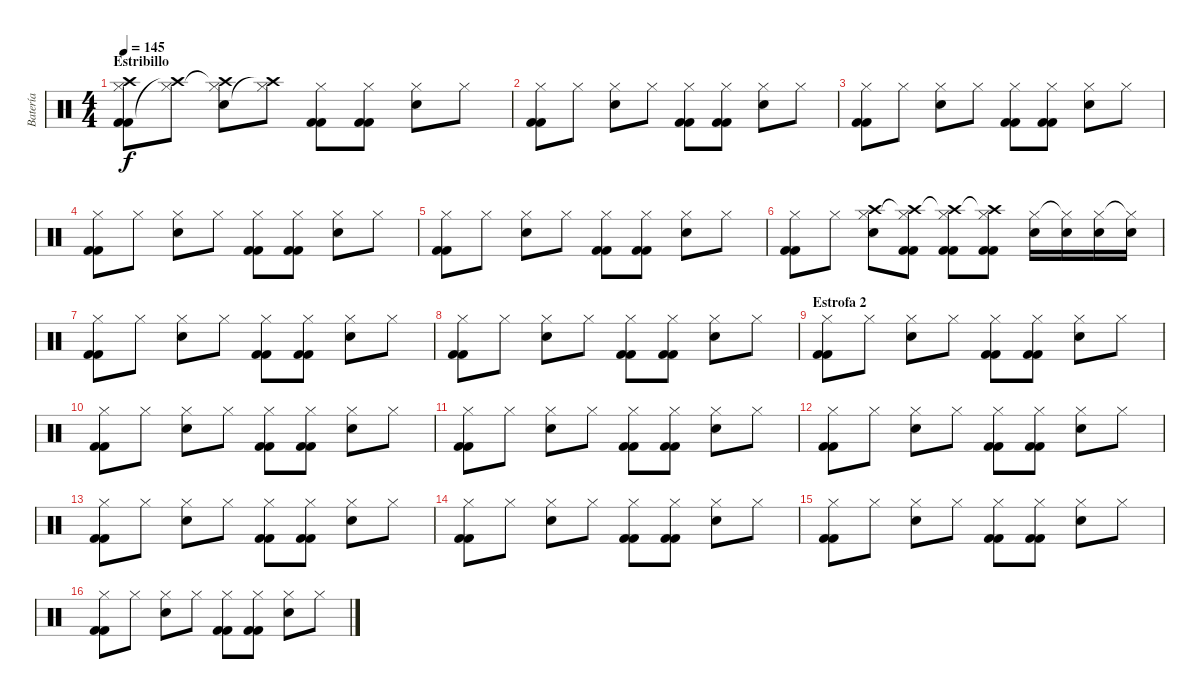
\track ("Batería" "Batería") {instrument percussion}
\staff {score}
\articulation defaults
\ts (4 4)
\section ("" "Estribillo")
\tempo 145
\clef neutral
\ks c
("Kick (hit) 2" "Kick (hit) 2" "Crash high (hit)" "Hi-Hat (closed)").8{dy f} ("Crash high (hit)"{t} "Hi-Hat (closed)").8 ("Snare (hit) 2" "Crash high (hit)"{t} "Hi-Hat (closed)").8 ("Crash high (hit)"{t} "Hi-Hat (closed)").8 ("Kick (hit) 2" "Kick (hit) 2" "Hi-Hat (closed)").8 ("Kick (hit) 2" "Kick (hit) 2" "Hi-Hat (closed)").8 ("Snare (hit) 2" "Hi-Hat (closed)").8 "Hi-Hat (closed)".8 |
("Kick (hit) 2" "Kick (hit) 2" "Hi-Hat (closed)").8 "Hi-Hat (closed)".8 ("Snare (hit) 2" "Hi-Hat (closed)").8 "Hi-Hat (closed)".8 ("Kick (hit) 2" "Kick (hit) 2" "Hi-Hat (closed)").8 ("Kick (hit) 2" "Kick (hit) 2" "Hi-Hat (closed)").8 ("Snare (hit) 2" "Hi-Hat (closed)").8 "Hi-Hat (closed)".8 |
("Kick (hit) 2" "Kick (hit) 2" "Hi-Hat (closed)").8 "Hi-Hat (closed)".8 ("Snare (hit) 2" "Hi-Hat (closed)").8 "Hi-Hat (closed)".8 ("Kick (hit) 2" "Kick (hit) 2" "Hi-Hat (closed)").8 ("Kick (hit) 2" "Kick (hit) 2" "Hi-Hat (closed)").8 ("Snare (hit) 2" "Hi-Hat (closed)").8 "Hi-Hat (closed)".8 |
("Kick (hit) 2" "Kick (hit) 2" "Hi-Hat (closed)").8 "Hi-Hat (closed)".8 ("Snare (hit) 2" "Hi-Hat (closed)").8 "Hi-Hat (closed)".8 ("Kick (hit) 2" "Kick (hit) 2" "Hi-Hat (closed)").8 ("Kick (hit) 2" "Kick (hit) 2" "Hi-Hat (closed)").8 ("Snare (hit) 2" "Hi-Hat (closed)").8 "Hi-Hat (closed)".8 |
("Kick (hit) 2" "Kick (hit) 2" "Hi-Hat (closed)").8 "Hi-Hat (closed)".8 ("Snare (hit) 2" "Hi-Hat (closed)").8 "Hi-Hat (closed)".8 ("Kick (hit) 2" "Kick (hit) 2" "Hi-Hat (closed)").8 ("Kick (hit) 2" "Kick (hit) 2" "Hi-Hat (closed)").8 ("Snare (hit) 2" "Hi-Hat (closed)").8 "Hi-Hat (closed)".8 |
("Kick (hit) 2" "Kick (hit) 2" "Hi-Hat (closed)").8 "Hi-Hat (closed)".8 ("Snare (hit) 2" "Crash high (hit)" "Hi-Hat (closed)").8 ("Kick (hit) 2" "Kick (hit) 2" "Crash high (hit)"{t} "Hi-Hat (closed)").8 ("Kick (hit) 2" "Kick (hit) 2" "Crash high (hit)"{t} "Hi-Hat (closed)").8 ("Kick (hit) 2" "Kick (hit) 2" "Crash high (hit)"{t} "Hi-Hat (closed)").8 ("Snare (hit) 2" "Hi-Hat (closed)").16 ("Snare (hit) 2" "Hi-Hat (closed)"{t}).16 ("Snare (hit) 2" "Hi-Hat (closed)").16 ("Snare (hit) 2" "Hi-Hat (closed)"{t}).16 |
("Kick (hit) 2" "Kick (hit) 2" "Hi-Hat (closed)").8 "Hi-Hat (closed)".8 ("Snare (hit) 2" "Hi-Hat (closed)").8 "Hi-Hat (closed)".8 ("Kick (hit) 2" "Kick (hit) 2" "Hi-Hat (closed)").8 ("Kick (hit) 2" "Kick (hit) 2" "Hi-Hat (closed)").8 ("Snare (hit) 2" "Hi-Hat (closed)").8 "Hi-Hat (closed)".8 |
("Kick (hit) 2" "Kick (hit) 2" "Hi-Hat (closed)").8 "Hi-Hat (closed)".8 ("Snare (hit) 2" "Hi-Hat (closed)").8 "Hi-Hat (closed)".8 ("Kick (hit) 2" "Kick (hit) 2" "Hi-Hat (closed)").8 ("Kick (hit) 2" "Kick (hit) 2" "Hi-Hat (closed)").8 ("Snare (hit) 2" "Hi-Hat (closed)").8 "Hi-Hat (closed)".8 |
\section ("" "Estrofa 2")
("Kick (hit) 2" "Kick (hit) 2" "Hi-Hat (closed)").8 "Hi-Hat (closed)".8 ("Snare (hit) 2" "Hi-Hat (closed)").8 "Hi-Hat (closed)".8 ("Kick (hit) 2" "Kick (hit) 2" "Hi-Hat (closed)").8 ("Kick (hit) 2" "Kick (hit) 2" "Hi-Hat (closed)").8 ("Snare (hit) 2" "Hi-Hat (closed)").8 "Hi-Hat (closed)".8 |
("Kick (hit) 2" "Kick (hit) 2" "Hi-Hat (closed)").8 "Hi-Hat (closed)".8 ("Snare (hit) 2" "Hi-Hat (closed)").8 "Hi-Hat (closed)".8 ("Kick (hit) 2" "Kick (hit) 2" "Hi-Hat (closed)").8 ("Kick (hit) 2" "Kick (hit) 2" "Hi-Hat (closed)").8 ("Snare (hit) 2" "Hi-Hat (closed)").8 "Hi-Hat (closed)".8 |
("Kick (hit) 2" "Kick (hit) 2" "Hi-Hat (closed)").8 "Hi-Hat (closed)".8 ("Snare (hit) 2" "Hi-Hat (closed)").8 "Hi-Hat (closed)".8 ("Kick (hit) 2" "Kick (hit) 2" "Hi-Hat (closed)").8 ("Kick (hit) 2" "Kick (hit) 2" "Hi-Hat (closed)").8 ("Snare (hit) 2" "Hi-Hat (closed)").8 "Hi-Hat (closed)".8 |
("Kick (hit) 2" "Kick (hit) 2" "Hi-Hat (closed)").8 "Hi-Hat (closed)".8 ("Snare (hit) 2" "Hi-Hat (closed)").8 "Hi-Hat (closed)".8 ("Kick (hit) 2" "Kick (hit) 2" "Hi-Hat (closed)").8 ("Kick (hit) 2" "Kick (hit) 2" "Hi-Hat (closed)").8 ("Snare (hit) 2" "Hi-Hat (closed)").8 "Hi-Hat (closed)".8 |
("Kick (hit) 2" "Kick (hit) 2" "Hi-Hat (closed)").8 "Hi-Hat (closed)".8 ("Snare (hit) 2" "Hi-Hat (closed)").8 "Hi-Hat (closed)".8 ("Kick (hit) 2" "Kick (hit) 2" "Hi-Hat (closed)").8 ("Kick (hit) 2" "Kick (hit) 2" "Hi-Hat (closed)").8 ("Snare (hit) 2" "Hi-Hat (closed)").8 "Hi-Hat (closed)".8 |
("Kick (hit) 2" "Kick (hit) 2" "Hi-Hat (closed)").8 "Hi-Hat (closed)".8 ("Snare (hit) 2" "Hi-Hat (closed)").8 "Hi-Hat (closed)".8 ("Kick (hit) 2" "Kick (hit) 2" "Hi-Hat (closed)").8 ("Kick (hit) 2" "Kick (hit) 2" "Hi-Hat (closed)").8 ("Snare (hit) 2" "Hi-Hat (closed)").8 "Hi-Hat (closed)".8 |
("Kick (hit) 2" "Kick (hit) 2" "Hi-Hat (closed)").8 "Hi-Hat (closed)".8 ("Snare (hit) 2" "Hi-Hat (closed)").8 "Hi-Hat (closed)".8 ("Kick (hit) 2" "Kick (hit) 2" "Hi-Hat (closed)").8 ("Kick (hit) 2" "Kick (hit) 2" "Hi-Hat (closed)").8 ("Snare (hit) 2" "Hi-Hat (closed)").8 "Hi-Hat (closed)".8 |
("Kick (hit) 2" "Kick (hit) 2" "Hi-Hat (closed)").8 "Hi-Hat (closed)".8 ("Snare (hit) 2" "Hi-Hat (closed)").8 "Hi-Hat (closed)".8 ("Kick (hit) 2" "Kick (hit) 2" "Hi-Hat (closed)").8 ("Kick (hit) 2" "Kick (hit) 2" "Hi-Hat (closed)").8 ("Snare (hit) 2" "Hi-Hat (closed)").8 "Hi-Hat (closed)".8
